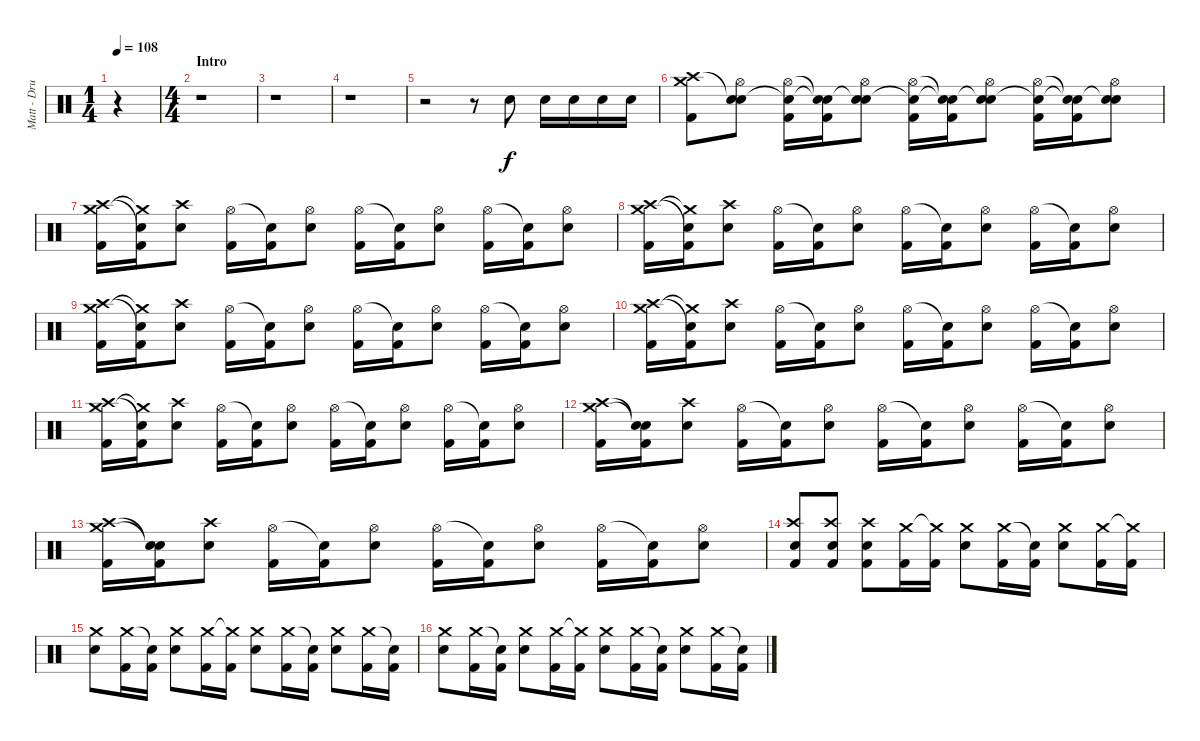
\track ("Matt - Drums" "Matt - Dru") {instrument percussion}
\staff {score}
\articulation defaults
\ts (1 4)
\tempo 108
\clef neutral
\ks c
r.4{dy f} |
\ts (4 4)
\section ("" "Intro")
r.1 |
r.1 |
r.1 |
r.2 r.8 "Snare (hit) 2".8 "Snare (hit) 2".16 "Snare (hit) 2".16 "Snare (hit) 2".16 "Snare (hit) 2".16 |
("Crash high (hit)" "Crash medium (hit)" "Kick (hit) 2").8 ("Snare (hit)"{t} "Hi-Hat (open)" "Snare (hit) 2").8 ("Snare (hit)"{t} "Hi-Hat (open)" "Kick (hit) 2").16 ("Snare (hit)"{t} "Snare (hit)"{t} "Kick (hit) 2").16 ("Snare (hit)"{t} "Hi-Hat (open)" "Snare (hit) 2").8 ("Snare (hit)"{t} "Hi-Hat (open)" "Kick (hit) 2").16 ("Snare (hit)"{t} "Snare (hit)"{t} "Kick (hit) 2").16 ("Snare (hit)"{t} "Hi-Hat (open)" "Snare (hit) 2").8 ("Snare (hit)"{t} "Hi-Hat (open)" "Kick (hit) 2").16 ("Snare (hit)"{t} "Snare (hit)"{t} "Kick (hit) 2").16 ("Snare (hit)"{t} "Hi-Hat (open)" "Snare (hit) 2").8 |
("Crash high (hit)" "Crash medium (hit)" "Kick (hit) 2").16 ("Snare (hit)"{t} "Crash medium (hit)"{t} "Kick (hit) 2").16 ("Crash high (hit)" "Snare (hit) 2").8 ("Hi-Hat (open)" "Kick (hit) 2").16 ("Snare (hit)"{t} "Kick (hit) 2").16 ("Hi-Hat (open)" "Snare (hit) 2").8 ("Hi-Hat (open)" "Kick (hit) 2").16 ("Snare (hit)"{t} "Kick (hit) 2").16 ("Hi-Hat (open)" "Snare (hit) 2").8 ("Hi-Hat (open)" "Kick (hit) 2").16 ("Snare (hit)"{t} "Kick (hit) 2").16 ("Hi-Hat (open)" "Snare (hit) 2").8 |
("Crash high (hit)" "Crash medium (hit)" "Kick (hit) 2").16 ("Snare (hit)"{t} "Crash medium (hit)"{t} "Kick (hit) 2").16 ("Crash high (hit)" "Snare (hit) 2").8 ("Hi-Hat (open)" "Kick (hit) 2").16 ("Snare (hit)"{t} "Kick (hit) 2").16 ("Hi-Hat (open)" "Snare (hit) 2").8 ("Hi-Hat (open)" "Kick (hit) 2").16 ("Snare (hit)"{t} "Kick (hit) 2").16 ("Hi-Hat (open)" "Snare (hit) 2").8 ("Hi-Hat (open)" "Kick (hit) 2").16 ("Snare (hit)"{t} "Kick (hit) 2").16 ("Hi-Hat (open)" "Snare (hit) 2").8 |
("Crash high (hit)" "Crash medium (hit)" "Kick (hit) 2").16 ("Snare (hit)"{t} "Crash medium (hit)"{t} "Kick (hit) 2").16 ("Crash high (hit)" "Snare (hit) 2").8 ("Hi-Hat (open)" "Kick (hit) 2").16 ("Snare (hit)"{t} "Kick (hit) 2").16 ("Hi-Hat (open)" "Snare (hit) 2").8 ("Hi-Hat (open)" "Kick (hit) 2").16 ("Snare (hit)"{t} "Kick (hit) 2").16 ("Hi-Hat (open)" "Snare (hit) 2").8 ("Hi-Hat (open)" "Kick (hit) 2").16 ("Snare (hit)"{t} "Kick (hit) 2").16 ("Hi-Hat (open)" "Snare (hit) 2").8 |
("Crash high (hit)" "Crash medium (hit)" "Kick (hit) 2").16 ("Snare (hit)"{t} "Crash medium (hit)"{t} "Kick (hit) 2").16 ("Crash high (hit)" "Snare (hit) 2").8 ("Hi-Hat (open)" "Kick (hit) 2").16 ("Snare (hit)"{t} "Kick (hit) 2").16 ("Hi-Hat (open)" "Snare (hit) 2").8 ("Hi-Hat (open)" "Kick (hit) 2").16 ("Snare (hit)"{t} "Kick (hit) 2").16 ("Hi-Hat (open)" "Snare (hit) 2").8 ("Hi-Hat (open)" "Kick (hit) 2").16 ("Snare (hit)"{t} "Kick (hit) 2").16 ("Hi-Hat (open)" "Snare (hit) 2").8 |
("Crash high (hit)" "Crash medium (hit)" "Kick (hit) 2").16 ("Snare (hit)"{t} "Crash medium (hit)"{t} "Kick (hit) 2").16 ("Crash high (hit)" "Snare (hit) 2").8 ("Hi-Hat (open)" "Kick (hit) 2").16 ("Snare (hit)"{t} "Kick (hit) 2").16 ("Hi-Hat (open)" "Snare (hit) 2").8 ("Hi-Hat (open)" "Kick (hit) 2").16 ("Snare (hit)"{t} "Kick (hit) 2").16 ("Hi-Hat (open)" "Snare (hit) 2").8 ("Hi-Hat (open)" "Kick (hit) 2").16 ("Snare (hit)"{t} "Kick (hit) 2").16 ("Hi-Hat (open)" "Snare (hit) 2").8 |
("Crash high (hit)" "Crash medium (hit)" "Kick (hit) 2").16 ("Snare (hit)"{t} "Snare (hit)"{t} "Kick (hit) 2").16 ("Crash high (hit)" "Snare (hit) 2").8 ("Hi-Hat (open)" "Kick (hit) 2").16 ("Snare (hit)"{t} "Kick (hit) 2").16 ("Hi-Hat (open)" "Snare (hit) 2").8 ("Hi-Hat (open)" "Kick (hit) 2").16 ("Snare (hit)"{t} "Kick (hit) 2").16 ("Hi-Hat (open)" "Snare (hit) 2").8 ("Hi-Hat (open)" "Kick (hit) 2").16 ("Snare (hit)"{t} "Kick (hit) 2").16 ("Hi-Hat (open)" "Snare (hit) 2").8 |
("Crash high (hit)" "Crash medium (hit)" "Kick (hit) 2").16 ("Snare (hit)"{t} "Snare (hit)"{t} "Kick (hit) 2").16 ("Crash high (hit)" "Snare (hit) 2").8 ("Hi-Hat (open)" "Kick (hit) 2").16 ("Snare (hit)"{t} "Kick (hit) 2").16 ("Hi-Hat (open)" "Snare (hit) 2").8 ("Hi-Hat (open)" "Kick (hit) 2").16 ("Snare (hit)"{t} "Kick (hit) 2").16 ("Hi-Hat (open)" "Snare (hit) 2").8 ("Hi-Hat (open)" "Kick (hit) 2").16 ("Snare (hit)"{t} "Kick (hit) 2").16 ("Hi-Hat (open)" "Snare (hit) 2").8 |
("Crash high (hit)" "Snare (hit) 2" "Kick (hit) 2").8 ("Crash high (hit)" "Snare (hit) 2" "Kick (hit) 2").8 ("Crash high (hit)" "Snare (hit) 2" "Kick (hit) 2").8 ("Crash medium (hit)" "Kick (hit) 2").16 ("Crash medium (hit)"{t} "Kick (hit) 2").16 ("Crash medium (hit)" "Snare (hit) 2").8 ("Crash medium (hit)" "Kick (hit) 2").16 ("Snare (hit)"{t} "Kick (hit) 2").16 ("Crash medium (hit)" "Snare (hit) 2").8 ("Crash medium (hit)" "Kick (hit) 2").16 ("Crash medium (hit)"{t} "Kick (hit) 2").16 |
("Crash medium (hit)" "Snare (hit) 2").8 ("Crash medium (hit)" "Kick (hit) 2").16 ("Snare (hit)"{t} "Kick (hit) 2").16 ("Crash medium (hit)" "Snare (hit) 2").8 ("Crash medium (hit)" "Kick (hit) 2").16 ("Crash medium (hit)"{t} "Kick (hit) 2").16 ("Crash medium (hit)" "Snare (hit) 2").8 ("Crash medium (hit)" "Kick (hit) 2").16 ("Snare (hit)"{t} "Kick (hit) 2").16 ("Crash medium (hit)" "Snare (hit) 2").8 ("Crash medium (hit)" "Kick (hit) 2").16 ("Snare (hit)"{t} "Kick (hit) 2").16 |
("Crash medium (hit)" "Snare (hit) 2").8 ("Crash medium (hit)" "Kick (hit) 2").16 ("Snare (hit)"{t} "Kick (hit) 2").16 ("Crash medium (hit)" "Snare (hit) 2").8 ("Crash medium (hit)" "Kick (hit) 2").16 ("Crash medium (hit)"{t} "Kick (hit) 2").16 ("Crash medium (hit)" "Snare (hit) 2").8 ("Crash medium (hit)" "Kick (hit) 2").16 ("Snare (hit)"{t} "Kick (hit) 2").16 ("Crash medium (hit)" "Snare (hit) 2").8 ("Crash medium (hit)" "Kick (hit) 2").16 ("Snare (hit)"{t} "Kick (hit) 2").16
